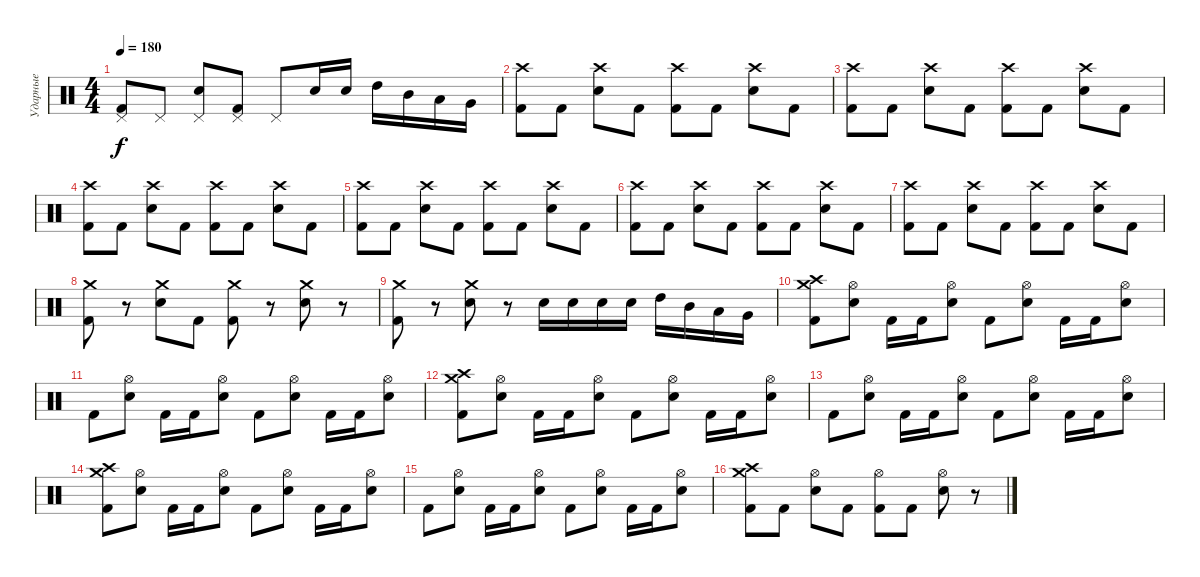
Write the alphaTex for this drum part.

\track ("Ударные" "Ударные") {instrument percussion}
\staff {score}
\articulation defaults
\ts (4 4)
\tempo 180
\clef neutral
\ks c
("Pedal Hi-Hat (hit)" "Kick (hit) 2").8{dy f} "Pedal Hi-Hat (hit)".8 ("Pedal Hi-Hat (hit)" "Electric Snare (hit)").8 ("Pedal Hi-Hat (hit)" "Kick (hit) 2").8 "Pedal Hi-Hat (hit)".8 "Electric Snare (hit)".16 "Electric Snare (hit)".16 "High Tom (hit)".16 "Mid Tom (hit)".16 "Low Tom (hit)".16 "Very Low Tom (hit)".16 |
("Crash high (hit)" "Kick (hit) 2").8 "Kick (hit) 2".8 ("Crash high (hit)" "Electric Snare (hit)").8 "Kick (hit) 2".8 ("Crash high (hit)" "Kick (hit) 2").8 "Kick (hit) 2".8 ("Crash high (hit)" "Electric Snare (hit)").8 "Kick (hit) 2".8 |
("Crash high (hit)" "Kick (hit) 2").8 "Kick (hit) 2".8 ("Crash high (hit)" "Electric Snare (hit)").8 "Kick (hit) 2".8 ("Crash high (hit)" "Kick (hit) 2").8 "Kick (hit) 2".8 ("Crash high (hit)" "Electric Snare (hit)").8 "Kick (hit) 2".8 |
("Crash high (hit)" "Kick (hit) 2").8 "Kick (hit) 2".8 ("Crash high (hit)" "Electric Snare (hit)").8 "Kick (hit) 2".8 ("Crash high (hit)" "Kick (hit) 2").8 "Kick (hit) 2".8 ("Crash high (hit)" "Electric Snare (hit)").8 "Kick (hit) 2".8 |
("Crash high (hit)" "Kick (hit) 2").8 "Kick (hit) 2".8 ("Crash high (hit)" "Electric Snare (hit)").8 "Kick (hit) 2".8 ("Crash high (hit)" "Kick (hit) 2").8 "Kick (hit) 2".8 ("Crash high (hit)" "Electric Snare (hit)").8 "Kick (hit) 2".8 |
("Crash high (hit)" "Kick (hit) 2").8 "Kick (hit) 2".8 ("Crash high (hit)" "Electric Snare (hit)").8 "Kick (hit) 2".8 ("Crash high (hit)" "Kick (hit) 2").8 "Kick (hit) 2".8 ("Crash high (hit)" "Electric Snare (hit)").8 "Kick (hit) 2".8 |
("Crash high (hit)" "Kick (hit) 2").8 "Kick (hit) 2".8 ("Crash high (hit)" "Electric Snare (hit)").8 "Kick (hit) 2".8 ("Crash high (hit)" "Kick (hit) 2").8 "Kick (hit) 2".8 ("Crash high (hit)" "Electric Snare (hit)").8 "Kick (hit) 2".8 |
("Crash medium (hit)" "Kick (hit) 2").8 r.8 ("Crash medium (hit)" "Electric Snare (hit)").8 "Kick (hit) 2".8 ("Crash medium (hit)" "Kick (hit) 2").8 r.8 ("Crash medium (hit)" "Electric Snare (hit)").8 r.8 |
("Crash medium (hit)" "Kick (hit) 2").8 r.8 ("Crash medium (hit)" "Electric Snare (hit)").8 r.8 "Electric Snare (hit)".16 "Electric Snare (hit)".16 "Electric Snare (hit)".16 "Electric Snare (hit)".16 "High Tom (hit)".16 "Mid Tom (hit)".16 "Low Tom (hit)".16 "Very Low Tom (hit)".16 |
("Crash medium (hit)" "Crash high (hit)" "Kick (hit) 2").8 ("Hi-Hat (open)" "Electric Snare (hit)").8 "Kick (hit) 2".16 "Kick (hit) 2".16 ("Hi-Hat (open)" "Electric Snare (hit)").8 "Kick (hit) 2".8 ("Hi-Hat (open)" "Electric Snare (hit)").8 "Kick (hit) 2".16 "Kick (hit) 2".16 ("Hi-Hat (open)" "Electric Snare (hit)").8 |
"Kick (hit) 2".8 ("Hi-Hat (open)" "Electric Snare (hit)").8 "Kick (hit) 2".16 "Kick (hit) 2".16 ("Hi-Hat (open)" "Electric Snare (hit)").8 "Kick (hit) 2".8 ("Hi-Hat (open)" "Electric Snare (hit)").8 "Kick (hit) 2".16 "Kick (hit) 2".16 ("Hi-Hat (open)" "Electric Snare (hit)").8 |
("Crash medium (hit)" "Crash high (hit)" "Kick (hit) 2").8 ("Hi-Hat (open)" "Electric Snare (hit)").8 "Kick (hit) 2".16 "Kick (hit) 2".16 ("Hi-Hat (open)" "Electric Snare (hit)").8 "Kick (hit) 2".8 ("Hi-Hat (open)" "Electric Snare (hit)").8 "Kick (hit) 2".16 "Kick (hit) 2".16 ("Hi-Hat (open)" "Electric Snare (hit)").8 |
"Kick (hit) 2".8 ("Hi-Hat (open)" "Electric Snare (hit)").8 "Kick (hit) 2".16 "Kick (hit) 2".16 ("Hi-Hat (open)" "Electric Snare (hit)").8 "Kick (hit) 2".8 ("Hi-Hat (open)" "Electric Snare (hit)").8 "Kick (hit) 2".16 "Kick (hit) 2".16 ("Hi-Hat (open)" "Electric Snare (hit)").8 |
("Crash medium (hit)" "Crash high (hit)" "Kick (hit) 2").8 ("Hi-Hat (open)" "Electric Snare (hit)").8 "Kick (hit) 2".16 "Kick (hit) 2".16 ("Hi-Hat (open)" "Electric Snare (hit)").8 "Kick (hit) 2".8 ("Hi-Hat (open)" "Electric Snare (hit)").8 "Kick (hit) 2".16 "Kick (hit) 2".16 ("Hi-Hat (open)" "Electric Snare (hit)").8 |
"Kick (hit) 2".8 ("Hi-Hat (open)" "Electric Snare (hit)").8 "Kick (hit) 2".16 "Kick (hit) 2".16 ("Hi-Hat (open)" "Electric Snare (hit)").8 "Kick (hit) 2".8 ("Hi-Hat (open)" "Electric Snare (hit)").8 "Kick (hit) 2".16 "Kick (hit) 2".16 ("Hi-Hat (open)" "Electric Snare (hit)").8 |
("Crash medium (hit)" "Crash high (hit)" "Kick (hit) 2").8 "Kick (hit) 2".8 ("Hi-Hat (open)" "Electric Snare (hit)").8 "Kick (hit) 2".8 ("Hi-Hat (open)" "Kick (hit) 2").8 "Kick (hit) 2".8 ("Hi-Hat (open)" "Electric Snare (hit)").8 r.8
